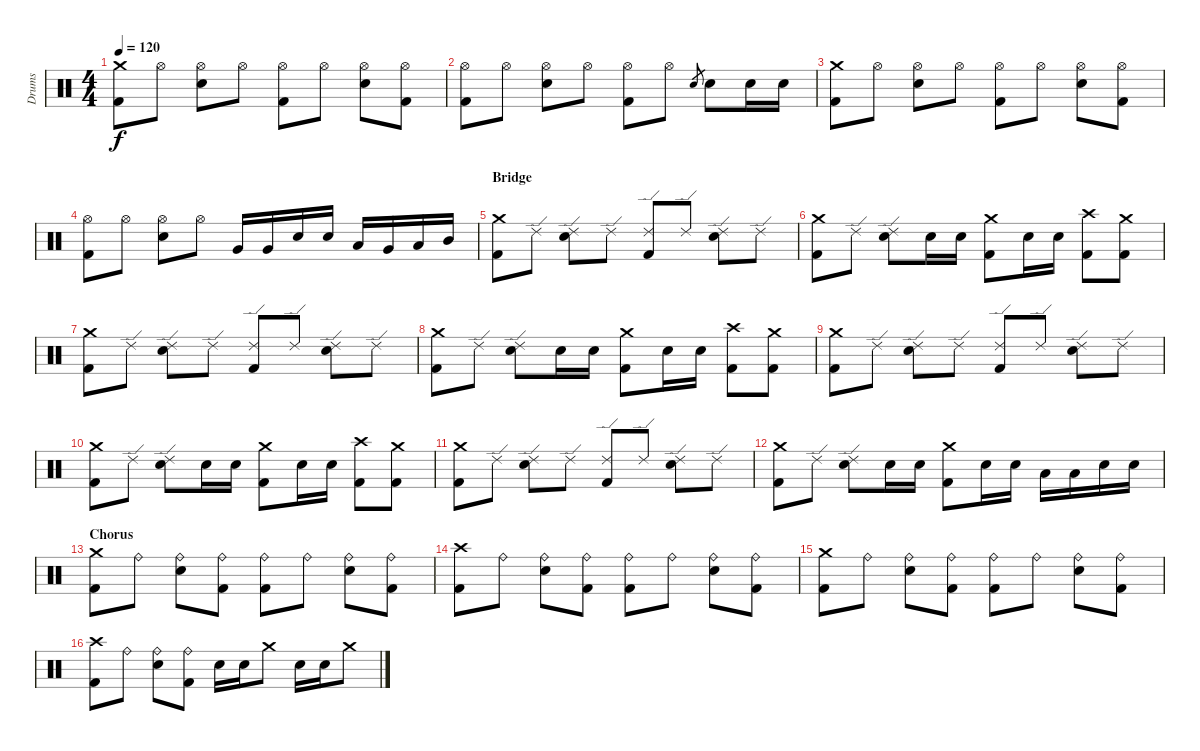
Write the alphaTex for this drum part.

\track ("Drums" "Drums") {instrument percussion}
\staff {score}
\articulation defaults
\ts (4 4)
\tempo 120
\clef neutral
\ks c
("Kick (hit) 2" "Crash medium (hit)").8{dy f} "Hi-Hat (open)".8 ("Snare (hit) 2" "Hi-Hat (open)").8 "Hi-Hat (open)".8 ("Kick (hit) 2" "Hi-Hat (open)").8 "Hi-Hat (open)".8 ("Snare (hit) 2" "Hi-Hat (open)").8 ("Kick (hit) 2" "Hi-Hat (open)").8 |
("Kick (hit) 2" "Hi-Hat (open)").8 "Hi-Hat (open)".8 ("Snare (hit) 2" "Hi-Hat (open)").8 "Hi-Hat (open)".8 ("Kick (hit) 2" "Hi-Hat (open)").8 "Hi-Hat (open)".8 "Snare (hit) 2".8{gr} "Snare (hit) 2".8 "Snare (hit) 2".16 "Snare (hit) 2".16 |
("Kick (hit) 2" "Crash medium (hit)").8 "Hi-Hat (open)".8 ("Snare (hit) 2" "Hi-Hat (open)").8 "Hi-Hat (open)".8 ("Kick (hit) 2" "Hi-Hat (open)").8 "Hi-Hat (open)".8 ("Snare (hit) 2" "Hi-Hat (open)").8 ("Kick (hit) 2" "Hi-Hat (open)").8 |
("Kick (hit) 2" "Hi-Hat (open)").8 "Hi-Hat (open)".8 ("Snare (hit) 2" "Hi-Hat (open)").8 "Hi-Hat (open)".8 "Very Low Tom (hit)".16 "Very Low Tom (hit)".16 "Snare (hit) 2".16 "Snare (hit) 2".16 "Low Floor Tom (hit)".16 "Very Low Tom (hit)".16 "Low Tom (hit)".16 "Mid Tom (hit)".16 |
\section ("" "Bridge")
("Kick (hit) 2" "Crash medium (hit)").8 "Ride (edge) 2".8 ("Snare (hit) 2" "Ride (edge) 2").8 "Ride (edge) 2".8 ("Kick (hit) 2" "Ride (edge) 2").8 "Ride (edge) 2".8 ("Snare (hit) 2" "Ride (edge) 2").8 "Ride (edge) 2".8 |
("Kick (hit) 2" "Crash medium (hit)").8 "Ride (edge) 2".8 ("Snare (hit) 2" "Ride (edge) 2").8 "Snare (hit) 2".16 "Snare (hit) 2".16 ("Kick (hit) 2" "Crash medium (hit)").8 "Snare (hit) 2".16 "Snare (hit) 2".16 ("Kick (hit) 2" "Crash high (hit)").8 ("Kick (hit) 2" "Crash medium (hit)").8 |
("Kick (hit) 2" "Crash medium (hit)").8 "Ride (edge) 2".8 ("Snare (hit) 2" "Ride (edge) 2").8 "Ride (edge) 2".8 ("Kick (hit) 2" "Ride (edge) 2").8 "Ride (edge) 2".8 ("Snare (hit) 2" "Ride (edge) 2").8 "Ride (edge) 2".8 |
("Kick (hit) 2" "Crash medium (hit)").8 "Ride (edge) 2".8 ("Snare (hit) 2" "Ride (edge) 2").8 "Snare (hit) 2".16 "Snare (hit) 2".16 ("Kick (hit) 2" "Crash medium (hit)").8 "Snare (hit) 2".16 "Snare (hit) 2".16 ("Kick (hit) 2" "Crash high (hit)").8 ("Kick (hit) 2" "Crash medium (hit)").8 |
("Kick (hit) 2" "Crash medium (hit)").8 "Ride (edge) 2".8 ("Snare (hit) 2" "Ride (edge) 2").8 "Ride (edge) 2".8 ("Kick (hit) 2" "Ride (edge) 2").8 "Ride (edge) 2".8 ("Snare (hit) 2" "Ride (edge) 2").8 "Ride (edge) 2".8 |
("Kick (hit) 2" "Crash medium (hit)").8 "Ride (edge) 2".8 ("Snare (hit) 2" "Ride (edge) 2").8 "Snare (hit) 2".16 "Snare (hit) 2".16 ("Kick (hit) 2" "Crash medium (hit)").8 "Snare (hit) 2".16 "Snare (hit) 2".16 ("Kick (hit) 2" "Crash high (hit)").8 ("Kick (hit) 2" "Crash medium (hit)").8 |
("Kick (hit) 2" "Crash medium (hit)").8 "Ride (edge) 2".8 ("Snare (hit) 2" "Ride (edge) 2").8 "Ride (edge) 2".8 ("Kick (hit) 2" "Ride (edge) 2").8 "Ride (edge) 2".8 ("Snare (hit) 2" "Ride (edge) 2").8 "Ride (edge) 2".8 |
("Kick (hit) 2" "Crash medium (hit)").8 "Ride (edge) 2".8 ("Snare (hit) 2" "Ride (edge) 2").8 "Snare (hit) 2".16 "Snare (hit) 2".16 ("Kick (hit) 2" "Crash medium (hit)").8 "Snare (hit) 2".16 "Snare (hit) 2".16 "Low Tom (hit)".16 "Low Tom (hit)".16 "Snare (hit) 2".16 "Snare (hit) 2".16 |
\section ("" "Chorus")
("Kick (hit) 2" "Crash medium (hit)").8 "Ride (bell)".8 ("Snare (hit) 2" "Ride (bell)").8 ("Kick (hit) 2" "Ride (bell)").8 ("Kick (hit) 2" "Ride (bell)").8 "Ride (bell)".8 ("Snare (hit) 2" "Ride (bell)").8 ("Kick (hit) 2" "Ride (bell)").8 |
("Kick (hit) 2" "Crash high (hit)").8 "Ride (bell)".8 ("Snare (hit) 2" "Ride (bell)").8 ("Kick (hit) 2" "Ride (bell)").8 ("Kick (hit) 2" "Ride (bell)").8 "Ride (bell)".8 ("Snare (hit) 2" "Ride (bell)").8 ("Kick (hit) 2" "Ride (bell)").8 |
("Kick (hit) 2" "Crash medium (hit)").8 "Ride (bell)".8 ("Snare (hit) 2" "Ride (bell)").8 ("Kick (hit) 2" "Ride (bell)").8 ("Kick (hit) 2" "Ride (bell)").8 "Ride (bell)".8 ("Snare (hit) 2" "Ride (bell)").8 ("Kick (hit) 2" "Ride (bell)").8 |
("Kick (hit) 2" "Crash high (hit)").8 "Ride (bell)".8 ("Snare (hit) 2" "Ride (bell)").8 ("Kick (hit) 2" "Ride (bell)").8 "Snare (hit) 2".16 "Snare (hit) 2".16 "Crash medium (hit)".8 "Snare (hit) 2".16 "Snare (hit) 2".16 "Crash medium (hit)".8
